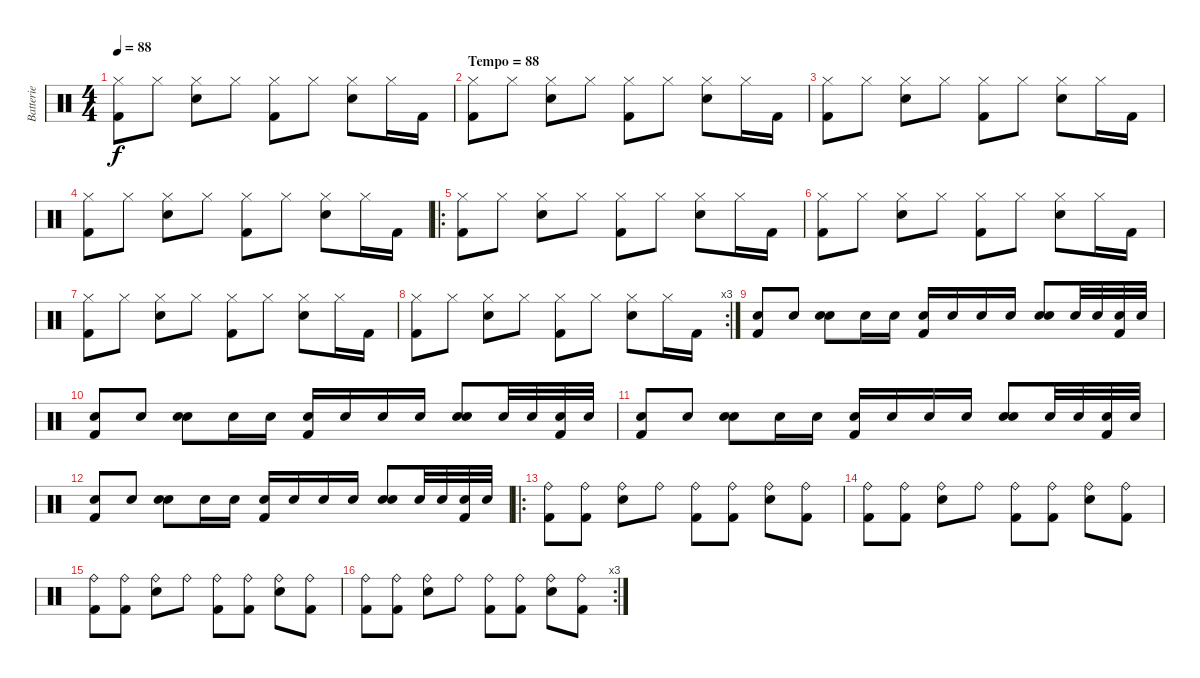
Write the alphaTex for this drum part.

\track ("Batterie" "Batterie") {instrument percussion}
\staff {score}
\articulation defaults
\ts (4 4)
\tempo 88
\clef neutral
\ks c
("Kick (hit) 2" "Hi-Hat (closed)").8{dy f volume 2} "Hi-Hat (closed)".8 ("Hand Clap (hit)" "Hi-Hat (closed)").8{volume 13} "Hi-Hat (closed)".8 ("Kick (hit) 2" "Hi-Hat (closed)").8 "Hi-Hat (closed)".8 ("Hand Clap (hit)" "Hi-Hat (closed)").8 "Hi-Hat (closed)".16 "Kick (hit) 2".16 |
\section ("" "Tempo = 88")
("Kick (hit) 2" "Hi-Hat (closed)").8 "Hi-Hat (closed)".8 ("Hand Clap (hit)" "Hi-Hat (closed)").8 "Hi-Hat (closed)".8 ("Kick (hit) 2" "Hi-Hat (closed)").8 "Hi-Hat (closed)".8 ("Hand Clap (hit)" "Hi-Hat (closed)").8 "Hi-Hat (closed)".16 "Kick (hit) 2".16 |
("Kick (hit) 2" "Hi-Hat (closed)").8 "Hi-Hat (closed)".8 ("Hand Clap (hit)" "Hi-Hat (closed)").8 "Hi-Hat (closed)".8 ("Kick (hit) 2" "Hi-Hat (closed)").8 "Hi-Hat (closed)".8 ("Hand Clap (hit)" "Hi-Hat (closed)").8 "Hi-Hat (closed)".16 "Kick (hit) 2".16 |
("Kick (hit) 2" "Hi-Hat (closed)").8 "Hi-Hat (closed)".8 ("Hand Clap (hit)" "Hi-Hat (closed)").8 "Hi-Hat (closed)".8 ("Kick (hit) 2" "Hi-Hat (closed)").8 "Hi-Hat (closed)".8 ("Hand Clap (hit)" "Hi-Hat (closed)").8 "Hi-Hat (closed)".16 "Kick (hit) 2".16 |
\ro
("Kick (hit) 2" "Hi-Hat (closed)").8 "Hi-Hat (closed)".8 ("Hand Clap (hit)" "Hi-Hat (closed)").8 "Hi-Hat (closed)".8 ("Kick (hit) 2" "Hi-Hat (closed)").8 "Hi-Hat (closed)".8 ("Hand Clap (hit)" "Hi-Hat (closed)").8 "Hi-Hat (closed)".16 "Kick (hit) 2".16 |
("Kick (hit) 2" "Hi-Hat (closed)").8 "Hi-Hat (closed)".8 ("Hand Clap (hit)" "Hi-Hat (closed)").8 "Hi-Hat (closed)".8 ("Kick (hit) 2" "Hi-Hat (closed)").8 "Hi-Hat (closed)".8 ("Hand Clap (hit)" "Hi-Hat (closed)").8 "Hi-Hat (closed)".16 "Kick (hit) 2".16 |
("Kick (hit) 2" "Hi-Hat (closed)").8 "Hi-Hat (closed)".8 ("Hand Clap (hit)" "Hi-Hat (closed)").8 "Hi-Hat (closed)".8 ("Kick (hit) 2" "Hi-Hat (closed)").8 "Hi-Hat (closed)".8 ("Hand Clap (hit)" "Hi-Hat (closed)").8 "Hi-Hat (closed)".16 "Kick (hit) 2".16 |
\rc 3
("Kick (hit) 2" "Hi-Hat (closed)").8 "Hi-Hat (closed)".8 ("Hand Clap (hit)" "Hi-Hat (closed)").8 "Hi-Hat (closed)".8 ("Kick (hit) 2" "Hi-Hat (closed)").8 "Hi-Hat (closed)".8 ("Hand Clap (hit)" "Hi-Hat (closed)").8 "Hi-Hat (closed)".16 "Kick (hit) 2".16 |
("Kick (hit) 2" "Electric Snare (hit)").8 "Electric Snare (hit)".8 ("Hand Clap (hit)" "Electric Snare (hit)").8 "Electric Snare (hit)".16 "Electric Snare (hit)".16 ("Kick (hit) 2" "Electric Snare (hit)").16 "Electric Snare (hit)".16 "Electric Snare (hit)".16 "Electric Snare (hit)".16 ("Hand Clap (hit)" "Electric Snare (hit)").8 "Electric Snare (hit)".32 "Electric Snare (hit)".32 ("Kick (hit) 2" "Electric Snare (hit)").32 "Electric Snare (hit)".32 |
("Kick (hit) 2" "Electric Snare (hit)").8 "Electric Snare (hit)".8 ("Hand Clap (hit)" "Electric Snare (hit)").8 "Electric Snare (hit)".16 "Electric Snare (hit)".16 ("Kick (hit) 2" "Electric Snare (hit)").16 "Electric Snare (hit)".16 "Electric Snare (hit)".16 "Electric Snare (hit)".16 ("Hand Clap (hit)" "Electric Snare (hit)").8 "Electric Snare (hit)".32 "Electric Snare (hit)".32 ("Kick (hit) 2" "Electric Snare (hit)").32 "Electric Snare (hit)".32 |
("Kick (hit) 2" "Electric Snare (hit)").8 "Electric Snare (hit)".8 ("Hand Clap (hit)" "Electric Snare (hit)").8 "Electric Snare (hit)".16 "Electric Snare (hit)".16 ("Kick (hit) 2" "Electric Snare (hit)").16 "Electric Snare (hit)".16 "Electric Snare (hit)".16 "Electric Snare (hit)".16 ("Hand Clap (hit)" "Electric Snare (hit)").8 "Electric Snare (hit)".32 "Electric Snare (hit)".32 ("Kick (hit) 2" "Electric Snare (hit)").32 "Electric Snare (hit)".32 |
("Kick (hit) 2" "Electric Snare (hit)").8 "Electric Snare (hit)".8 ("Hand Clap (hit)" "Electric Snare (hit)").8 "Electric Snare (hit)".16 "Electric Snare (hit)".16 ("Kick (hit) 2" "Electric Snare (hit)").16 "Electric Snare (hit)".16 "Electric Snare (hit)".16 "Electric Snare (hit)".16 ("Hand Clap (hit)" "Electric Snare (hit)").8 "Electric Snare (hit)".32 "Electric Snare (hit)".32 ("Kick (hit) 2" "Electric Snare (hit)").32 "Electric Snare (hit)".32 |
\ro
("Kick (hit) 2" "Ride (bell)").8 ("Kick (hit) 2" "Ride (bell)").8 ("Snare (hit) 2" "Ride (bell)").8 "Ride (bell)".8 ("Kick (hit) 2" "Ride (bell)").8 ("Kick (hit) 2" "Ride (bell)").8 ("Snare (hit) 2" "Ride (bell)").8 ("Kick (hit) 2" "Ride (bell)").8 |
("Kick (hit) 2" "Ride (bell)").8 ("Kick (hit) 2" "Ride (bell)").8 ("Snare (hit) 2" "Ride (bell)").8 "Ride (bell)".8 ("Kick (hit) 2" "Ride (bell)").8 ("Kick (hit) 2" "Ride (bell)").8 ("Snare (hit) 2" "Ride (bell)").8 ("Kick (hit) 2" "Ride (bell)").8 |
("Kick (hit) 2" "Ride (bell)").8 ("Kick (hit) 2" "Ride (bell)").8 ("Snare (hit) 2" "Ride (bell)").8 "Ride (bell)".8 ("Kick (hit) 2" "Ride (bell)").8 ("Kick (hit) 2" "Ride (bell)").8 ("Snare (hit) 2" "Ride (bell)").8 ("Kick (hit) 2" "Ride (bell)").8 |
\rc 3
("Kick (hit) 2" "Ride (bell)").8 ("Kick (hit) 2" "Ride (bell)").8 ("Snare (hit) 2" "Ride (bell)").8 "Ride (bell)".8 ("Kick (hit) 2" "Ride (bell)").8 ("Kick (hit) 2" "Ride (bell)").8 ("Snare (hit) 2" "Ride (bell)").8 ("Kick (hit) 2" "Ride (bell)").8
